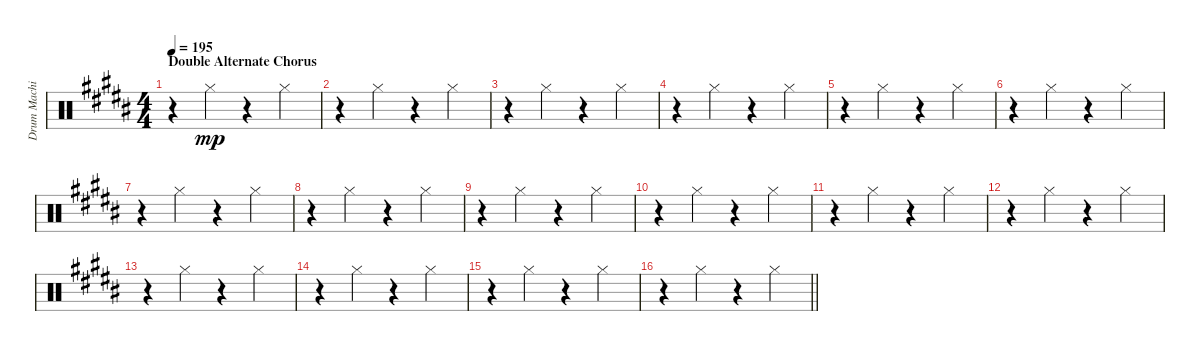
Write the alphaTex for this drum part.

\track ("Drum Machine" "Drum Machi") {instrument percussion}
\staff {score}
\articulation defaults
\ts (4 4)
\section ("" "Double Alternate Chorus")
\tempo 195
\clef neutral
\ks b
r.4{dy mp} "Hi-Hat (closed)".4 r.4 "Hi-Hat (closed)".4 |
r.4 "Hi-Hat (closed)".4 r.4 "Hi-Hat (closed)".4 |
r.4 "Hi-Hat (closed)".4 r.4 "Hi-Hat (closed)".4 |
r.4 "Hi-Hat (closed)".4 r.4 "Hi-Hat (closed)".4 |
r.4 "Hi-Hat (closed)".4 r.4 "Hi-Hat (closed)".4 |
r.4 "Hi-Hat (closed)".4 r.4 "Hi-Hat (closed)".4 |
r.4 "Hi-Hat (closed)".4 r.4 "Hi-Hat (closed)".4 |
r.4 "Hi-Hat (closed)".4 r.4 "Hi-Hat (closed)".4 |
r.4 "Hi-Hat (closed)".4 r.4 "Hi-Hat (closed)".4 |
r.4 "Hi-Hat (closed)".4 r.4 "Hi-Hat (closed)".4 |
r.4 "Hi-Hat (closed)".4 r.4 "Hi-Hat (closed)".4 |
r.4 "Hi-Hat (closed)".4 r.4 "Hi-Hat (closed)".4 |
r.4 "Hi-Hat (closed)".4 r.4 "Hi-Hat (closed)".4 |
r.4 "Hi-Hat (closed)".4 r.4 "Hi-Hat (closed)".4 |
r.4 "Hi-Hat (closed)".4 r.4 "Hi-Hat (closed)".4 |
\barLineRight lightlight
r.4 "Hi-Hat (closed)".4 r.4 "Hi-Hat (closed)".4
